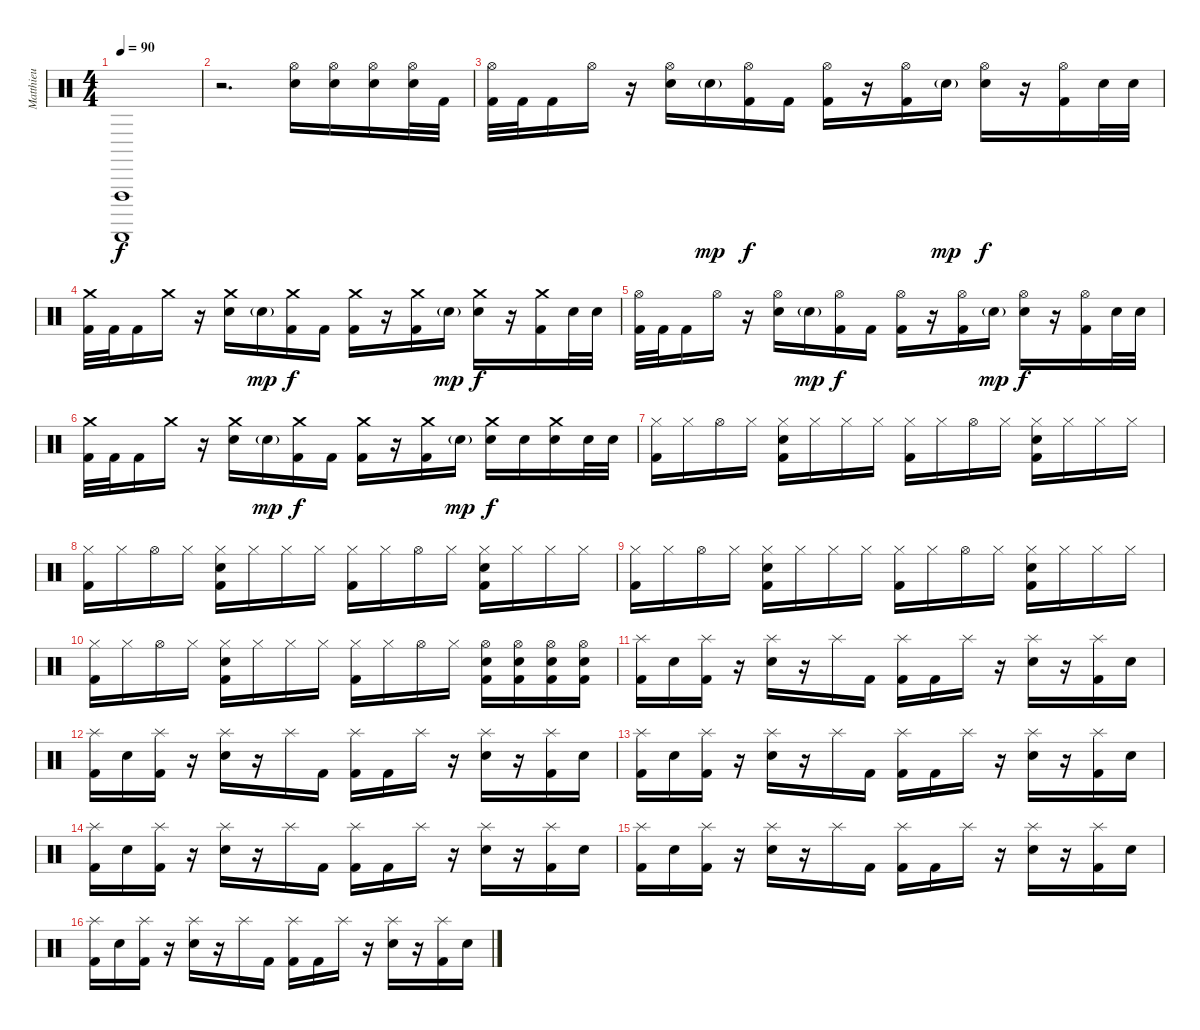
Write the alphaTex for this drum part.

\track ("Matthieu" "Matthieu") {instrument percussion}
\staff {score}
\articulation defaults
\ts (4 4)
\tempo 90
\clef neutral
\ks c
("Vibraslap (hit)" "Guiro (scrap-return)").1{dy f} |
r.2{d} ("Hi-Hat (open)" "Electric Snare (hit)").16 ("Hi-Hat (open)" "Electric Snare (hit)").16 ("Hi-Hat (open)" "Electric Snare (hit)").16 ("Hi-Hat (open)" "Electric Snare (hit)").32 "Kick (hit) 2".32 |
("Hi-Hat (open)" "Kick (hit) 2").32 "Kick (hit) 2".32 "Kick (hit) 2".16 "Hi-Hat (open)".16 r.16 ("Hi-Hat (open)" "Electric Snare (hit)").16 "Electric Snare (hit)"{g}.16{dy mp} ("Hi-Hat (open)" "Kick (hit) 2").16{dy f} "Kick (hit) 2".16 ("Hi-Hat (open)" "Kick (hit) 2").16 r.16 ("Hi-Hat (open)" "Kick (hit) 2").16 "Electric Snare (hit)"{g}.16{dy mp} ("Hi-Hat (open)" "Electric Snare (hit)").16{dy f} r.16 ("Hi-Hat (open)" "Kick (hit) 2").16 "Electric Snare (hit)".32 "Electric Snare (hit)".32 |
("Crash medium (hit)" "Kick (hit) 2").32 "Kick (hit) 2".32 "Kick (hit) 2".16 "Crash medium (hit)".16 r.16 ("Crash medium (hit)" "Electric Snare (hit)").16 "Electric Snare (hit)"{g}.16{dy mp} ("Crash medium (hit)" "Kick (hit) 2").16{dy f} "Kick (hit) 2".16 ("Crash medium (hit)" "Kick (hit) 2").16 r.16 ("Crash medium (hit)" "Kick (hit) 2").16 "Electric Snare (hit)"{g}.16{dy mp} ("Crash medium (hit)" "Electric Snare (hit)").16{dy f} r.16 ("Crash medium (hit)" "Kick (hit) 2").16 "Electric Snare (hit)".32 "Electric Snare (hit)".32 |
("Hi-Hat (open)" "Kick (hit) 2").32 "Kick (hit) 2".32 "Kick (hit) 2".16 "Hi-Hat (open)".16 r.16 ("Hi-Hat (open)" "Electric Snare (hit)").16 "Electric Snare (hit)"{g}.16{dy mp} ("Hi-Hat (open)" "Kick (hit) 2").16{dy f} "Kick (hit) 2".16 ("Hi-Hat (open)" "Kick (hit) 2").16 r.16 ("Hi-Hat (open)" "Kick (hit) 2").16 "Electric Snare (hit)"{g}.16{dy mp} ("Hi-Hat (open)" "Electric Snare (hit)").16{dy f} r.16 ("Hi-Hat (open)" "Kick (hit) 2").16 "Electric Snare (hit)".32 "Electric Snare (hit)".32 |
("Crash medium (hit)" "Kick (hit) 2").32 "Kick (hit) 2".32 "Kick (hit) 2".16 "Crash medium (hit)".16 r.16 ("Crash medium (hit)" "Electric Snare (hit)").16 "Electric Snare (hit)"{g}.16{dy mp} ("Crash medium (hit)" "Kick (hit) 2").16{dy f} "Kick (hit) 2".16 ("Crash medium (hit)" "Kick (hit) 2").16 r.16 ("Crash medium (hit)" "Kick (hit) 2").16 "Electric Snare (hit)"{g}.16{dy mp} ("Crash medium (hit)" "Electric Snare (hit)").16{dy f} "Electric Snare (hit)".16 ("Crash medium (hit)" "Electric Snare (hit)").16 "Electric Snare (hit)".32 "Electric Snare (hit)".32 |
("Hi-Hat (closed)" "Kick (hit) 2").16 "Hi-Hat (closed)".16 "Hi-Hat (open)".16 "Hi-Hat (closed)".16 ("Hi-Hat (closed)" "Snare (hit) 2" "Kick (hit) 2").16 "Hi-Hat (closed)".16 "Hi-Hat (closed)".16 "Hi-Hat (closed)".16 ("Hi-Hat (closed)" "Kick (hit) 2").16 "Hi-Hat (closed)".16 "Hi-Hat (open)".16 "Hi-Hat (closed)".16 ("Hi-Hat (closed)" "Snare (hit) 2" "Kick (hit) 2").16 "Hi-Hat (closed)".16 "Hi-Hat (closed)".16 "Hi-Hat (closed)".16 |
("Hi-Hat (closed)" "Kick (hit) 2").16 "Hi-Hat (closed)".16 "Hi-Hat (open)".16 "Hi-Hat (closed)".16 ("Hi-Hat (closed)" "Snare (hit) 2" "Kick (hit) 2").16 "Hi-Hat (closed)".16 "Hi-Hat (closed)".16 "Hi-Hat (closed)".16 ("Hi-Hat (closed)" "Kick (hit) 2").16 "Hi-Hat (closed)".16 "Hi-Hat (open)".16 "Hi-Hat (closed)".16 ("Hi-Hat (closed)" "Snare (hit) 2" "Kick (hit) 2").16 "Hi-Hat (closed)".16 "Hi-Hat (closed)".16 "Hi-Hat (closed)".16 |
("Hi-Hat (closed)" "Kick (hit) 2").16 "Hi-Hat (closed)".16 "Hi-Hat (open)".16 "Hi-Hat (closed)".16 ("Hi-Hat (closed)" "Snare (hit) 2" "Kick (hit) 2").16 "Hi-Hat (closed)".16 "Hi-Hat (closed)".16 "Hi-Hat (closed)".16 ("Hi-Hat (closed)" "Kick (hit) 2").16 "Hi-Hat (closed)".16 "Hi-Hat (open)".16 "Hi-Hat (closed)".16 ("Hi-Hat (closed)" "Snare (hit) 2" "Kick (hit) 2").16 "Hi-Hat (closed)".16 "Hi-Hat (closed)".16 "Hi-Hat (closed)".16 |
("Hi-Hat (closed)" "Kick (hit) 2").16 "Hi-Hat (closed)".16 "Hi-Hat (open)".16 "Hi-Hat (closed)".16 ("Hi-Hat (closed)" "Snare (hit) 2" "Kick (hit) 2").16 "Hi-Hat (closed)".16 "Hi-Hat (closed)".16 "Hi-Hat (closed)".16 ("Hi-Hat (closed)" "Kick (hit) 2").16 "Hi-Hat (closed)".16 "Hi-Hat (open)".16 "Hi-Hat (closed)".16 ("Hi-Hat (open)" "Snare (hit) 2" "Kick (hit) 2").16 ("Hi-Hat (open)" "Snare (hit) 2" "Kick (hit) 2").16 ("Hi-Hat (open)" "Snare (hit) 2" "Kick (hit) 2").16 ("Hi-Hat (open)" "Snare (hit) 2" "Kick (hit) 2").16 |
("Splash (hit)" "Kick (hit) 2").16 "Electric Snare (hit)".16 ("Splash (hit)" "Kick (hit) 2").16 r.16 ("Splash (hit)" "Electric Snare (hit)").16 r.16 "Splash (hit)".16 "Kick (hit) 2".16 ("Splash (hit)" "Kick (hit) 2").16 "Kick (hit) 2".16 "Splash (hit)".16 r.16 ("Splash (hit)" "Electric Snare (hit)").16 r.16 ("Splash (hit)" "Kick (hit) 2").16 "Electric Snare (hit)".16 |
("Splash (hit)" "Kick (hit) 2").16 "Electric Snare (hit)".16 ("Splash (hit)" "Kick (hit) 2").16 r.16 ("Splash (hit)" "Electric Snare (hit)").16 r.16 "Splash (hit)".16 "Kick (hit) 2".16 ("Splash (hit)" "Kick (hit) 2").16 "Kick (hit) 2".16 "Splash (hit)".16 r.16 ("Splash (hit)" "Electric Snare (hit)").16 r.16 ("Splash (hit)" "Kick (hit) 2").16 "Electric Snare (hit)".16 |
("Splash (hit)" "Kick (hit) 2").16 "Electric Snare (hit)".16 ("Splash (hit)" "Kick (hit) 2").16 r.16 ("Splash (hit)" "Electric Snare (hit)").16 r.16 "Splash (hit)".16 "Kick (hit) 2".16 ("Splash (hit)" "Kick (hit) 2").16 "Kick (hit) 2".16 "Splash (hit)".16 r.16 ("Splash (hit)" "Electric Snare (hit)").16 r.16 ("Splash (hit)" "Kick (hit) 2").16 "Electric Snare (hit)".16 |
("Splash (hit)" "Kick (hit) 2").16 "Electric Snare (hit)".16 ("Splash (hit)" "Kick (hit) 2").16 r.16 ("Splash (hit)" "Electric Snare (hit)").16 r.16 "Splash (hit)".16 "Kick (hit) 2".16 ("Splash (hit)" "Kick (hit) 2").16 "Kick (hit) 2".16 "Splash (hit)".16 r.16 ("Splash (hit)" "Electric Snare (hit)").16 r.16 ("Splash (hit)" "Kick (hit) 2").16 "Electric Snare (hit)".16 |
("Splash (hit)" "Kick (hit) 2").16 "Electric Snare (hit)".16 ("Splash (hit)" "Kick (hit) 2").16 r.16 ("Splash (hit)" "Electric Snare (hit)").16 r.16 "Splash (hit)".16 "Kick (hit) 2".16 ("Splash (hit)" "Kick (hit) 2").16 "Kick (hit) 2".16 "Splash (hit)".16 r.16 ("Splash (hit)" "Electric Snare (hit)").16 r.16 ("Splash (hit)" "Kick (hit) 2").16 "Electric Snare (hit)".16 |
("Splash (hit)" "Kick (hit) 2").16 "Electric Snare (hit)".16 ("Splash (hit)" "Kick (hit) 2").16 r.16 ("Splash (hit)" "Electric Snare (hit)").16 r.16 "Splash (hit)".16 "Kick (hit) 2".16 ("Splash (hit)" "Kick (hit) 2").16 "Kick (hit) 2".16 "Splash (hit)".16 r.16 ("Splash (hit)" "Electric Snare (hit)").16 r.16 ("Splash (hit)" "Kick (hit) 2").16 "Electric Snare (hit)".16
